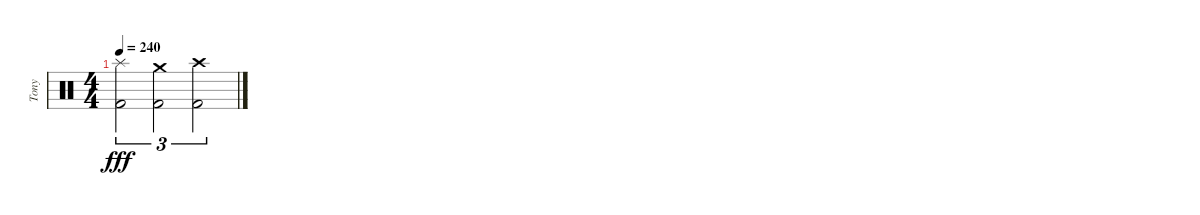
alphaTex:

\track ("Tony" "Tony") {instrument percussion}
\staff {score}
\articulation defaults
\ts (4 4)
\tempo 240
\clef neutral
\ks c
("Kick (hit) 2" "Splash (hit)").2{tu (3 2) dy fff} ("Kick (hit) 2" "Crash medium (hit)").2{tu (3 2)} ("Kick (hit) 2" "Crash high (hit)").2{tu (3 2)}
